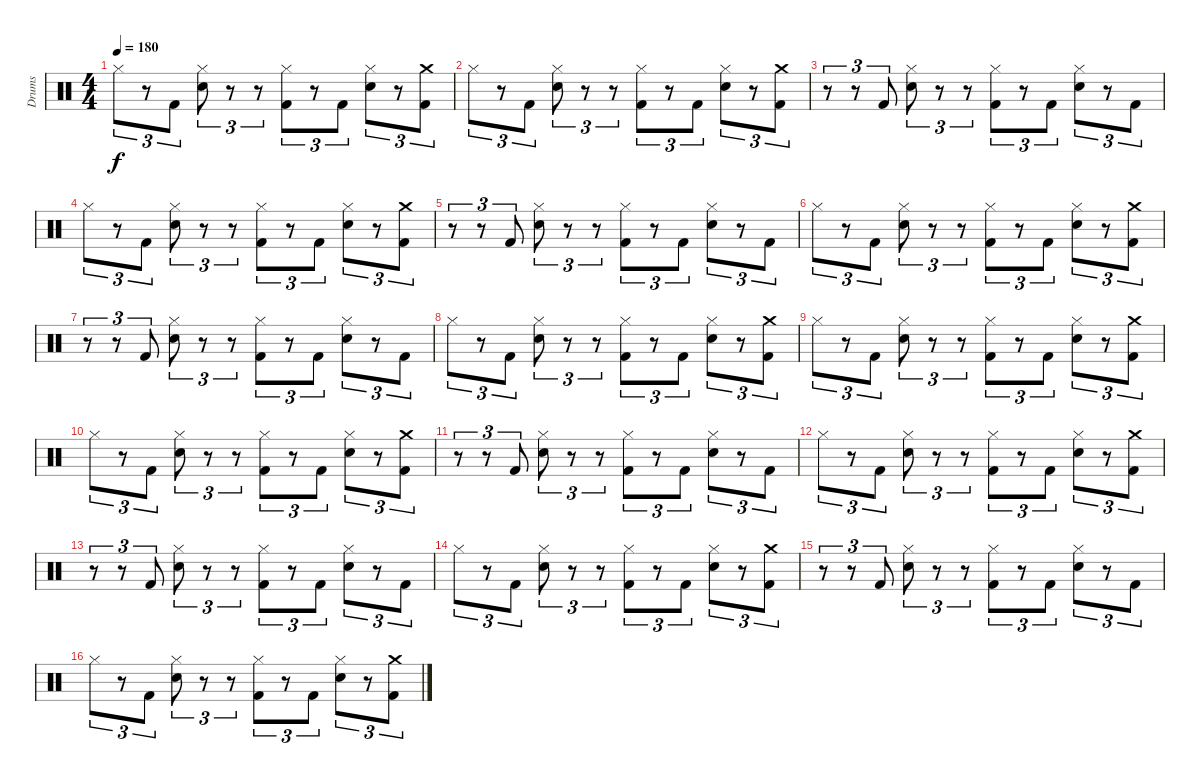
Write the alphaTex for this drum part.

\track ("Drums" "Drums") {instrument percussion}
\staff {score}
\articulation defaults
\ts (4 4)
\tempo 180
\clef neutral
\ks c "Hi-Hat (closed)".8{tu (3 2) dy f}
r.8{tu (3 2)} "Kick (hit) 2".8{tu (3 2)} ("Hi-Hat (closed)" "Snare (hit) 2").8{tu (3 2)} r.8{tu (3 2)} r.8{tu (3 2)} ("Hi-Hat (closed)" "Kick (hit) 2").8{tu (3 2)} r.8{tu (3 2)} "Kick (hit) 2".8{tu (3 2)} ("Hi-Hat (closed)" "Snare (hit) 2").8{tu (3 2)} r.8{tu (3 2)} ("Crash medium (hit)" "Kick (hit) 2").8{tu (3 2)} |
"Hi-Hat (closed)".8{tu (3 2)} r.8{tu (3 2)} "Kick (hit) 2".8{tu (3 2)} ("Hi-Hat (closed)" "Snare (hit) 2").8{tu (3 2)} r.8{tu (3 2)} r.8{tu (3 2)} ("Hi-Hat (closed)" "Kick (hit) 2").8{tu (3 2)} r.8{tu (3 2)} "Kick (hit) 2".8{tu (3 2)} ("Hi-Hat (closed)" "Snare (hit) 2").8{tu (3 2)} r.8{tu (3 2)} ("Crash medium (hit)" "Kick (hit) 2").8{tu (3 2)} |
r.8{tu (3 2)} r.8{tu (3 2)} "Kick (hit) 2".8{tu (3 2)} ("Hi-Hat (closed)" "Snare (hit) 2").8{tu (3 2)} r.8{tu (3 2)} r.8{tu (3 2)} ("Hi-Hat (closed)" "Kick (hit) 2").8{tu (3 2)} r.8{tu (3 2)} "Kick (hit) 2".8{tu (3 2)} ("Hi-Hat (closed)" "Snare (hit) 2").8{tu (3 2)} r.8{tu (3 2)} "Kick (hit) 2".8{tu (3 2)} |
"Hi-Hat (closed)".8{tu (3 2)} r.8{tu (3 2)} "Kick (hit) 2".8{tu (3 2)} ("Hi-Hat (closed)" "Snare (hit) 2").8{tu (3 2)} r.8{tu (3 2)} r.8{tu (3 2)} ("Hi-Hat (closed)" "Kick (hit) 2").8{tu (3 2)} r.8{tu (3 2)} "Kick (hit) 2".8{tu (3 2)} ("Hi-Hat (closed)" "Snare (hit) 2").8{tu (3 2)} r.8{tu (3 2)} ("Crash medium (hit)" "Kick (hit) 2").8{tu (3 2)} |
r.8{tu (3 2)} r.8{tu (3 2)} "Kick (hit) 2".8{tu (3 2)} ("Hi-Hat (closed)" "Snare (hit) 2").8{tu (3 2)} r.8{tu (3 2)} r.8{tu (3 2)} ("Hi-Hat (closed)" "Kick (hit) 2").8{tu (3 2)} r.8{tu (3 2)} "Kick (hit) 2".8{tu (3 2)} ("Hi-Hat (closed)" "Snare (hit) 2").8{tu (3 2)} r.8{tu (3 2)} "Kick (hit) 2".8{tu (3 2)} |
"Hi-Hat (closed)".8{tu (3 2)} r.8{tu (3 2)} "Kick (hit) 2".8{tu (3 2)} ("Hi-Hat (closed)" "Snare (hit) 2").8{tu (3 2)} r.8{tu (3 2)} r.8{tu (3 2)} ("Hi-Hat (closed)" "Kick (hit) 2").8{tu (3 2)} r.8{tu (3 2)} "Kick (hit) 2".8{tu (3 2)} ("Hi-Hat (closed)" "Snare (hit) 2").8{tu (3 2)} r.8{tu (3 2)} ("Crash medium (hit)" "Kick (hit) 2").8{tu (3 2)} |
r.8{tu (3 2)} r.8{tu (3 2)} "Kick (hit) 2".8{tu (3 2)} ("Hi-Hat (closed)" "Snare (hit) 2").8{tu (3 2)} r.8{tu (3 2)} r.8{tu (3 2)} ("Hi-Hat (closed)" "Kick (hit) 2").8{tu (3 2)} r.8{tu (3 2)} "Kick (hit) 2".8{tu (3 2)} ("Hi-Hat (closed)" "Snare (hit) 2").8{tu (3 2)} r.8{tu (3 2)} "Kick (hit) 2".8{tu (3 2)} |
"Hi-Hat (closed)".8{tu (3 2)} r.8{tu (3 2)} "Kick (hit) 2".8{tu (3 2)} ("Hi-Hat (closed)" "Snare (hit) 2").8{tu (3 2)} r.8{tu (3 2)} r.8{tu (3 2)} ("Hi-Hat (closed)" "Kick (hit) 2").8{tu (3 2)} r.8{tu (3 2)} "Kick (hit) 2".8{tu (3 2)} ("Hi-Hat (closed)" "Snare (hit) 2").8{tu (3 2)} r.8{tu (3 2)} ("Crash medium (hit)" "Kick (hit) 2").8{tu (3 2)} |
"Hi-Hat (closed)".8{tu (3 2)} r.8{tu (3 2)} "Kick (hit) 2".8{tu (3 2)} ("Hi-Hat (closed)" "Snare (hit) 2").8{tu (3 2)} r.8{tu (3 2)} r.8{tu (3 2)} ("Hi-Hat (closed)" "Kick (hit) 2").8{tu (3 2)} r.8{tu (3 2)} "Kick (hit) 2".8{tu (3 2)} ("Hi-Hat (closed)" "Snare (hit) 2").8{tu (3 2)} r.8{tu (3 2)} ("Crash medium (hit)" "Kick (hit) 2").8{tu (3 2)} |
"Hi-Hat (closed)".8{tu (3 2)} r.8{tu (3 2)} "Kick (hit) 2".8{tu (3 2)} ("Hi-Hat (closed)" "Snare (hit) 2").8{tu (3 2)} r.8{tu (3 2)} r.8{tu (3 2)} ("Hi-Hat (closed)" "Kick (hit) 2").8{tu (3 2)} r.8{tu (3 2)} "Kick (hit) 2".8{tu (3 2)} ("Hi-Hat (closed)" "Snare (hit) 2").8{tu (3 2)} r.8{tu (3 2)} ("Crash medium (hit)" "Kick (hit) 2").8{tu (3 2)} |
r.8{tu (3 2)} r.8{tu (3 2)} "Kick (hit) 2".8{tu (3 2)} ("Hi-Hat (closed)" "Snare (hit) 2").8{tu (3 2)} r.8{tu (3 2)} r.8{tu (3 2)} ("Hi-Hat (closed)" "Kick (hit) 2").8{tu (3 2)} r.8{tu (3 2)} "Kick (hit) 2".8{tu (3 2)} ("Hi-Hat (closed)" "Snare (hit) 2").8{tu (3 2)} r.8{tu (3 2)} "Kick (hit) 2".8{tu (3 2)} |
"Hi-Hat (closed)".8{tu (3 2)} r.8{tu (3 2)} "Kick (hit) 2".8{tu (3 2)} ("Hi-Hat (closed)" "Snare (hit) 2").8{tu (3 2)} r.8{tu (3 2)} r.8{tu (3 2)} ("Hi-Hat (closed)" "Kick (hit) 2").8{tu (3 2)} r.8{tu (3 2)} "Kick (hit) 2".8{tu (3 2)} ("Hi-Hat (closed)" "Snare (hit) 2").8{tu (3 2)} r.8{tu (3 2)} ("Crash medium (hit)" "Kick (hit) 2").8{tu (3 2)} |
r.8{tu (3 2)} r.8{tu (3 2)} "Kick (hit) 2".8{tu (3 2)} ("Hi-Hat (closed)" "Snare (hit) 2").8{tu (3 2)} r.8{tu (3 2)} r.8{tu (3 2)} ("Hi-Hat (closed)" "Kick (hit) 2").8{tu (3 2)} r.8{tu (3 2)} "Kick (hit) 2".8{tu (3 2)} ("Hi-Hat (closed)" "Snare (hit) 2").8{tu (3 2)} r.8{tu (3 2)} "Kick (hit) 2".8{tu (3 2)} |
"Hi-Hat (closed)".8{tu (3 2)} r.8{tu (3 2)} "Kick (hit) 2".8{tu (3 2)} ("Hi-Hat (closed)" "Snare (hit) 2").8{tu (3 2)} r.8{tu (3 2)} r.8{tu (3 2)} ("Hi-Hat (closed)" "Kick (hit) 2").8{tu (3 2)} r.8{tu (3 2)} "Kick (hit) 2".8{tu (3 2)} ("Hi-Hat (closed)" "Snare (hit) 2").8{tu (3 2)} r.8{tu (3 2)} ("Crash medium (hit)" "Kick (hit) 2").8{tu (3 2)} |
r.8{tu (3 2)} r.8{tu (3 2)} "Kick (hit) 2".8{tu (3 2)} ("Hi-Hat (closed)" "Snare (hit) 2").8{tu (3 2)} r.8{tu (3 2)} r.8{tu (3 2)} ("Hi-Hat (closed)" "Kick (hit) 2").8{tu (3 2)} r.8{tu (3 2)} "Kick (hit) 2".8{tu (3 2)} ("Hi-Hat (closed)" "Snare (hit) 2").8{tu (3 2)} r.8{tu (3 2)} "Kick (hit) 2".8{tu (3 2)} |
"Hi-Hat (closed)".8{tu (3 2)} r.8{tu (3 2)} "Kick (hit) 2".8{tu (3 2)} ("Hi-Hat (closed)" "Snare (hit) 2").8{tu (3 2)} r.8{tu (3 2)} r.8{tu (3 2)} ("Hi-Hat (closed)" "Kick (hit) 2").8{tu (3 2)} r.8{tu (3 2)} "Kick (hit) 2".8{tu (3 2)} ("Hi-Hat (closed)" "Snare (hit) 2").8{tu (3 2)} r.8{tu (3 2)} ("Crash medium (hit)" "Kick (hit) 2").8{tu (3 2)}
